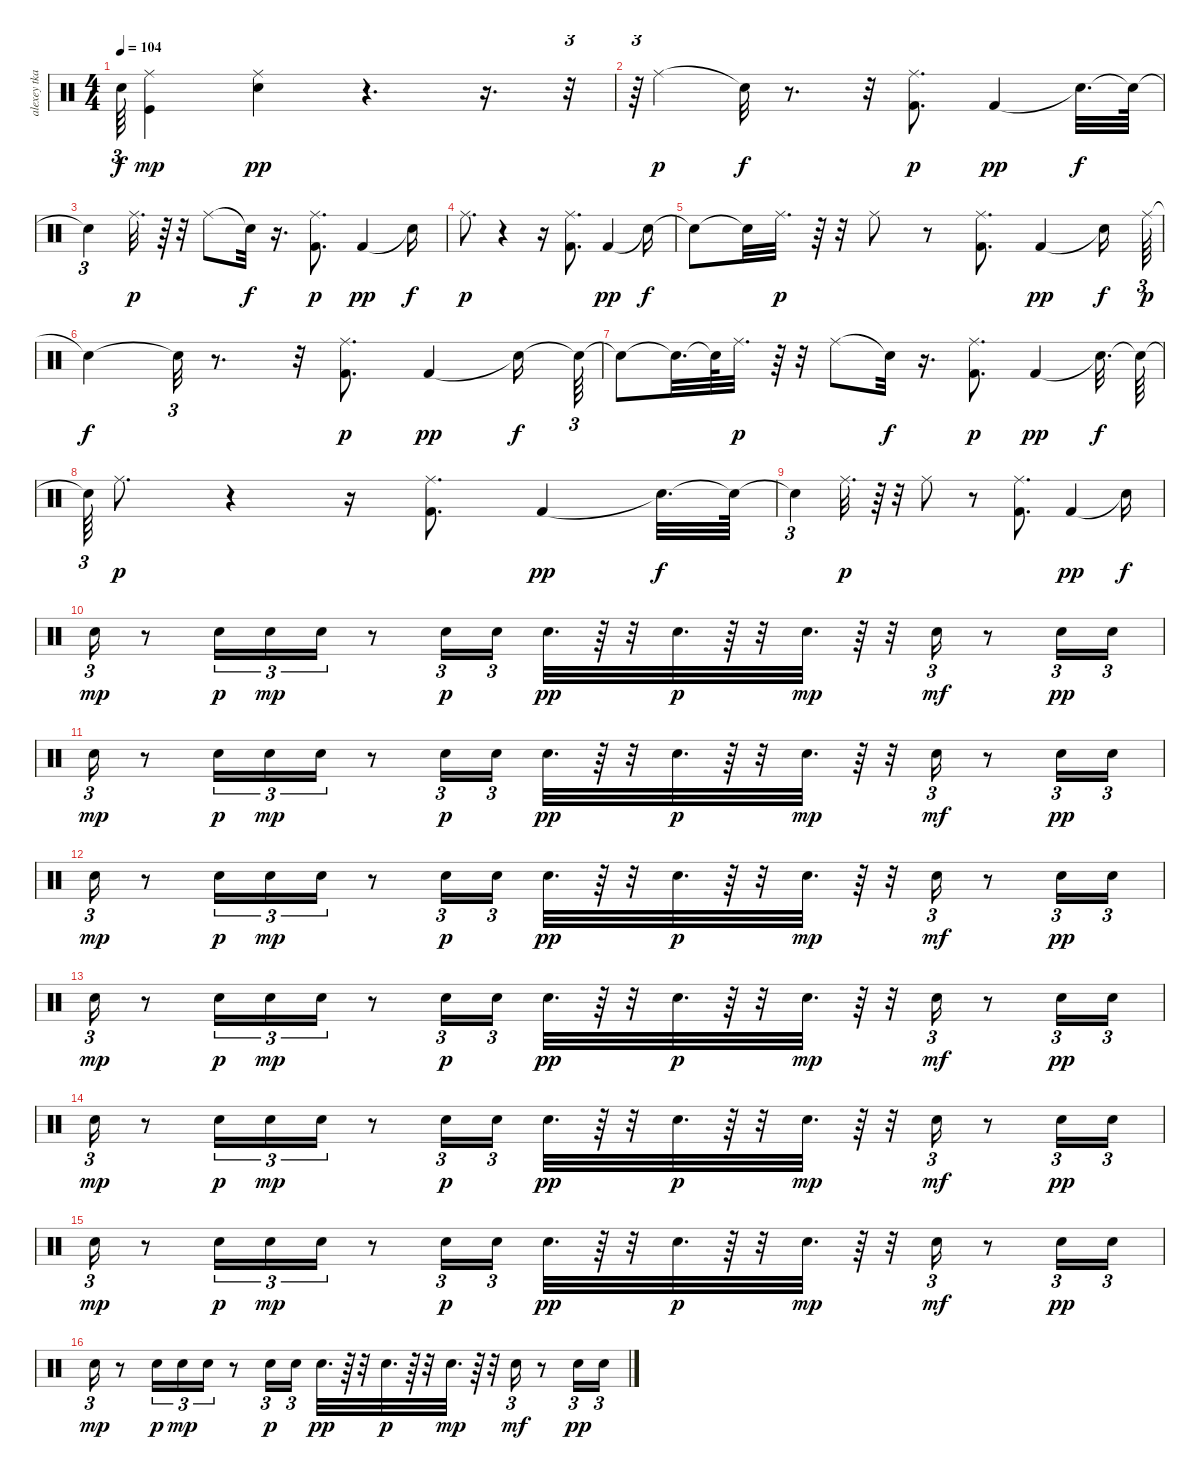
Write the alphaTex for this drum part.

\track ("alexey tkachevsky" "alexey tka") {instrument percussion}
\staff {score}
\articulation defaults
\ts (4 4)
\tempo 104
\clef neutral
\ks c "Snare (hit)"{t}.64{tu (3 2) dy f}
("Ride (middle)" "Kick (hit)").4{dy mp} ("Ride (middle)" "Snare (hit)").4{dy pp} r.4{d} r.16{d} r.32{tu (3 2)} |
r.64{tu (3 2)} "Ride (middle)".4{dy p} "Snare (hit)"{t}.32{dy f} r.8{d} r.32 ("Kick (hit) 2" "Ride (middle)").8{d dy p} "Kick (hit) 2".4{dy pp} "Snare (hit)"{t}.32{d dy f} "Snare (hit)"{t}.64 |
"Snare (hit)"{t}.4{tu (3 2)} "Ride (middle)".32{d dy p} r.64 r.32 "Ride (middle)".8 "Snare (hit)"{t}.32{dy f} r.16{d} ("Kick (hit) 2" "Ride (middle)").8{d dy p} "Kick (hit) 2".4{dy pp} "Snare (hit)"{t}.16{dy f} |
"Ride (middle)".8{d dy p} r.4 r.16 ("Kick (hit) 2" "Ride (middle)").8{d} "Kick (hit) 2".4{dy pp} "Snare (hit)"{t}.16{dy f} |
"Snare (hit)"{t}.8 "Snare (hit)"{t}.32 "Ride (middle)".32{d dy p} r.64 r.32 "Ride (middle)".8 r.8 ("Kick (hit) 2" "Ride (middle)").8{d} "Kick (hit) 2".4{dy pp} "Snare (hit)"{t}.16{dy f} "Ride (middle)".64{tu (3 2) dy p} |
"Snare (hit)"{t}.4{dy f} "Snare (hit)"{t}.32{tu (3 2)} r.8{d} r.32 ("Kick (hit) 2" "Ride (middle)").8{d dy p} "Kick (hit) 2".4{dy pp} "Snare (hit)"{t}.16{dy f} "Snare (hit)"{t}.64{tu (3 2)} |
"Snare (hit)"{t}.8 "Snare (hit)"{t}.32{d} "Snare (hit)"{t}.64 "Ride (middle)".32{d dy p} r.64 r.32 "Ride (middle)".8 "Snare (hit)"{t}.32{dy f} r.16{d} ("Kick (hit) 2" "Ride (middle)").8{d dy p} "Kick (hit) 2".4{dy pp} "Snare (hit)"{t}.32{d dy f} "Snare (hit)"{t}.64 |
"Snare (hit)"{t}.64{tu (3 2)} "Ride (middle)".8{d dy p} r.4 r.16 ("Kick (hit) 2" "Ride (middle)").8{d} "Kick (hit) 2".4{dy pp} "Snare (hit)"{t}.32{d dy f} "Snare (hit)"{t}.64 |
"Snare (hit)"{t}.4{tu (3 2)} "Ride (middle)".32{d dy p} r.64 r.32 "Ride (middle)".8 r.8 ("Kick (hit) 2" "Ride (middle)").8{d} "Kick (hit) 2".4{dy pp} "Snare (hit)"{t}.16{dy f} |
"Snare (hit)".16{tu (3 2) dy mp} r.8 "Snare (hit)".16{tu (3 2) dy p} "Snare (hit)".16{tu (3 2) dy mp} "Snare (hit)".16{tu (3 2)} r.8 "Snare (hit)".16{tu (3 2) dy p} "Snare (hit)".16{tu (3 2)} "Snare (hit)".32{d dy pp} r.64 r.32 "Snare (hit)".32{d dy p} r.64 r.32 "Snare (hit)".32{d dy mp} r.64 r.32 "Snare (hit)".16{tu (3 2) dy mf} r.8 "Snare (hit)".16{tu (3 2) dy pp} "Snare (hit)".16{tu (3 2)} |
"Snare (hit)".16{tu (3 2) dy mp} r.8 "Snare (hit)".16{tu (3 2) dy p} "Snare (hit)".16{tu (3 2) dy mp} "Snare (hit)".16{tu (3 2)} r.8 "Snare (hit)".16{tu (3 2) dy p} "Snare (hit)".16{tu (3 2)} "Snare (hit)".32{d dy pp} r.64 r.32 "Snare (hit)".32{d dy p} r.64 r.32 "Snare (hit)".32{d dy mp} r.64 r.32 "Snare (hit)".16{tu (3 2) dy mf} r.8 "Snare (hit)".16{tu (3 2) dy pp} "Snare (hit)".16{tu (3 2)} |
"Snare (hit)".16{tu (3 2) dy mp} r.8 "Snare (hit)".16{tu (3 2) dy p} "Snare (hit)".16{tu (3 2) dy mp} "Snare (hit)".16{tu (3 2)} r.8 "Snare (hit)".16{tu (3 2) dy p} "Snare (hit)".16{tu (3 2)} "Snare (hit)".32{d dy pp} r.64 r.32 "Snare (hit)".32{d dy p} r.64 r.32 "Snare (hit)".32{d dy mp} r.64 r.32 "Snare (hit)".16{tu (3 2) dy mf} r.8 "Snare (hit)".16{tu (3 2) dy pp} "Snare (hit)".16{tu (3 2)} |
"Snare (hit)".16{tu (3 2) dy mp} r.8 "Snare (hit)".16{tu (3 2) dy p} "Snare (hit)".16{tu (3 2) dy mp} "Snare (hit)".16{tu (3 2)} r.8 "Snare (hit)".16{tu (3 2) dy p} "Snare (hit)".16{tu (3 2)} "Snare (hit)".32{d dy pp} r.64 r.32 "Snare (hit)".32{d dy p} r.64 r.32 "Snare (hit)".32{d dy mp} r.64 r.32 "Snare (hit)".16{tu (3 2) dy mf} r.8 "Snare (hit)".16{tu (3 2) dy pp} "Snare (hit)".16{tu (3 2)} |
"Snare (hit)".16{tu (3 2) dy mp} r.8 "Snare (hit)".16{tu (3 2) dy p} "Snare (hit)".16{tu (3 2) dy mp} "Snare (hit)".16{tu (3 2)} r.8 "Snare (hit)".16{tu (3 2) dy p} "Snare (hit)".16{tu (3 2)} "Snare (hit)".32{d dy pp} r.64 r.32 "Snare (hit)".32{d dy p} r.64 r.32 "Snare (hit)".32{d dy mp} r.64 r.32 "Snare (hit)".16{tu (3 2) dy mf} r.8 "Snare (hit)".16{tu (3 2) dy pp} "Snare (hit)".16{tu (3 2)} |
"Snare (hit)".16{tu (3 2) dy mp} r.8 "Snare (hit)".16{tu (3 2) dy p} "Snare (hit)".16{tu (3 2) dy mp} "Snare (hit)".16{tu (3 2)} r.8 "Snare (hit)".16{tu (3 2) dy p} "Snare (hit)".16{tu (3 2)} "Snare (hit)".32{d dy pp} r.64 r.32 "Snare (hit)".32{d dy p} r.64 r.32 "Snare (hit)".32{d dy mp} r.64 r.32 "Snare (hit)".16{tu (3 2) dy mf} r.8 "Snare (hit)".16{tu (3 2) dy pp} "Snare (hit)".16{tu (3 2)} |
"Snare (hit)".16{tu (3 2) dy mp} r.8 "Snare (hit)".16{tu (3 2) dy p} "Snare (hit)".16{tu (3 2) dy mp} "Snare (hit)".16{tu (3 2)} r.8 "Snare (hit)".16{tu (3 2) dy p} "Snare (hit)".16{tu (3 2)} "Snare (hit)".32{d dy pp} r.64 r.32 "Snare (hit)".32{d dy p} r.64 r.32 "Snare (hit)".32{d dy mp} r.64 r.32 "Snare (hit)".16{tu (3 2) dy mf} r.8 "Snare (hit)".16{tu (3 2) dy pp} "Snare (hit)".16{tu (3 2)}
